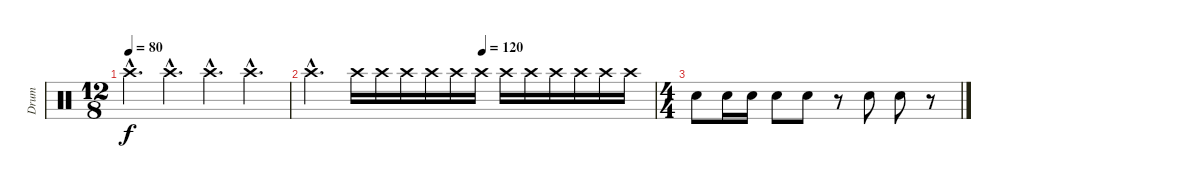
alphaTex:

\track ("Drum" "Drum") {instrument percussion}
\staff {score}
\articulation defaults
\ts (12 8)
\tempo 80
\clef neutral
\ks c "Crash high (hit)"{hac}.4{d dy f} "Crash high (hit)"{hac}.4{d} "Crash high (hit)"{hac}.4{d} "Crash high (hit)"{hac}.4{d}
|
\tempo (120 0.5)
"Crash high (hit)"{hac}.2{d} "Crash high (hit)".16{volume 7} "Crash high (hit)".16{volume 16} "Crash high (hit)".16 "Crash high (hit)".16 "Crash high (hit)".16 "Crash high (hit)".16 "Crash high (hit)".16 "Crash high (hit)".16 "Crash high (hit)".16 "Crash high (hit)".16 "Crash high (hit)".16 "Crash high (hit)".16 |
\ts (4 4)
"Electric Snare (hit)".8 "Electric Snare (hit)".16 "Electric Snare (hit)".16 "Electric Snare (hit)".8 "Electric Snare (hit)".8 r.8 "Electric Snare (hit)".8 "Electric Snare (hit)".8 r.8
